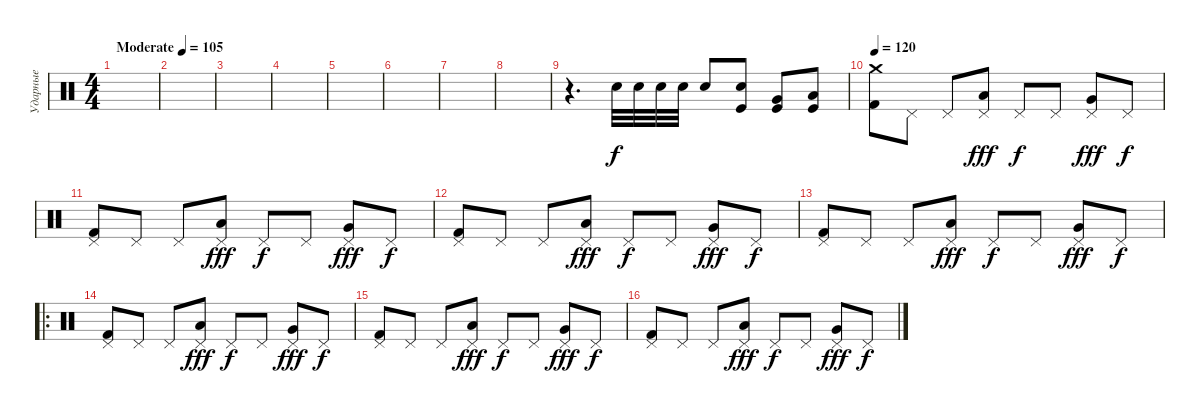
\track ("Ударные" "Ударные") {instrument percussion}
\staff {score}
\articulation defaults
\ts (4 4)
\tempo (105 "Moderate")
\clef neutral
\ks c
|
|
|
|
|
|
|
|
r.4{d} "Electric Snare (hit)".32 "Electric Snare (hit)".32 "Electric Snare (hit)".32 "Electric Snare (hit)".32 "Electric Snare (hit)".8 ("Electric Snare (hit)" "Kick (hit)").8 ("Very Low Tom (hit)" "Kick (hit)").8 ("Low Floor Tom (hit)" "Kick (hit)").8 |
\tempo 120
("Crash medium (hit)" "Kick (hit) 2").8 "Pedal Hi-Hat (hit)".8 "Pedal Hi-Hat (hit)".8 ("Pedal Hi-Hat (hit)" "Low Floor Tom (hit)").8{dy fff} "Pedal Hi-Hat (hit)".8{dy f} "Pedal Hi-Hat (hit)".8 ("Pedal Hi-Hat (hit)" "Very Low Tom (hit)").8{dy fff} "Pedal Hi-Hat (hit)".8{dy f} |
("Pedal Hi-Hat (hit)" "Kick (hit) 2").8 "Pedal Hi-Hat (hit)".8 "Pedal Hi-Hat (hit)".8 ("Pedal Hi-Hat (hit)" "Low Floor Tom (hit)").8{dy fff} "Pedal Hi-Hat (hit)".8{dy f} "Pedal Hi-Hat (hit)".8 ("Pedal Hi-Hat (hit)" "Very Low Tom (hit)").8{dy fff} "Pedal Hi-Hat (hit)".8{dy f} |
("Pedal Hi-Hat (hit)" "Kick (hit) 2").8 "Pedal Hi-Hat (hit)".8 "Pedal Hi-Hat (hit)".8 ("Pedal Hi-Hat (hit)" "Low Floor Tom (hit)").8{dy fff} "Pedal Hi-Hat (hit)".8{dy f} "Pedal Hi-Hat (hit)".8 ("Pedal Hi-Hat (hit)" "Very Low Tom (hit)").8{dy fff} "Pedal Hi-Hat (hit)".8{dy f} |
("Pedal Hi-Hat (hit)" "Kick (hit) 2").8 "Pedal Hi-Hat (hit)".8 "Pedal Hi-Hat (hit)".8 ("Pedal Hi-Hat (hit)" "Low Floor Tom (hit)").8{dy fff} "Pedal Hi-Hat (hit)".8{dy f} "Pedal Hi-Hat (hit)".8 ("Pedal Hi-Hat (hit)" "Very Low Tom (hit)").8{dy fff} "Pedal Hi-Hat (hit)".8{dy f} |
\ro
("Pedal Hi-Hat (hit)" "Kick (hit) 2").8 "Pedal Hi-Hat (hit)".8 "Pedal Hi-Hat (hit)".8 ("Pedal Hi-Hat (hit)" "Low Floor Tom (hit)").8{dy fff} "Pedal Hi-Hat (hit)".8{dy f} "Pedal Hi-Hat (hit)".8 ("Pedal Hi-Hat (hit)" "Very Low Tom (hit)").8{dy fff} "Pedal Hi-Hat (hit)".8{dy f} |
("Pedal Hi-Hat (hit)" "Kick (hit) 2").8 "Pedal Hi-Hat (hit)".8 "Pedal Hi-Hat (hit)".8 ("Pedal Hi-Hat (hit)" "Low Floor Tom (hit)").8{dy fff} "Pedal Hi-Hat (hit)".8{dy f} "Pedal Hi-Hat (hit)".8 ("Pedal Hi-Hat (hit)" "Very Low Tom (hit)").8{dy fff} "Pedal Hi-Hat (hit)".8{dy f} |
("Pedal Hi-Hat (hit)" "Kick (hit) 2").8 "Pedal Hi-Hat (hit)".8 "Pedal Hi-Hat (hit)".8 ("Pedal Hi-Hat (hit)" "Low Floor Tom (hit)").8{dy fff} "Pedal Hi-Hat (hit)".8{dy f} "Pedal Hi-Hat (hit)".8 ("Pedal Hi-Hat (hit)" "Very Low Tom (hit)").8{dy fff} "Pedal Hi-Hat (hit)".8{dy f}
